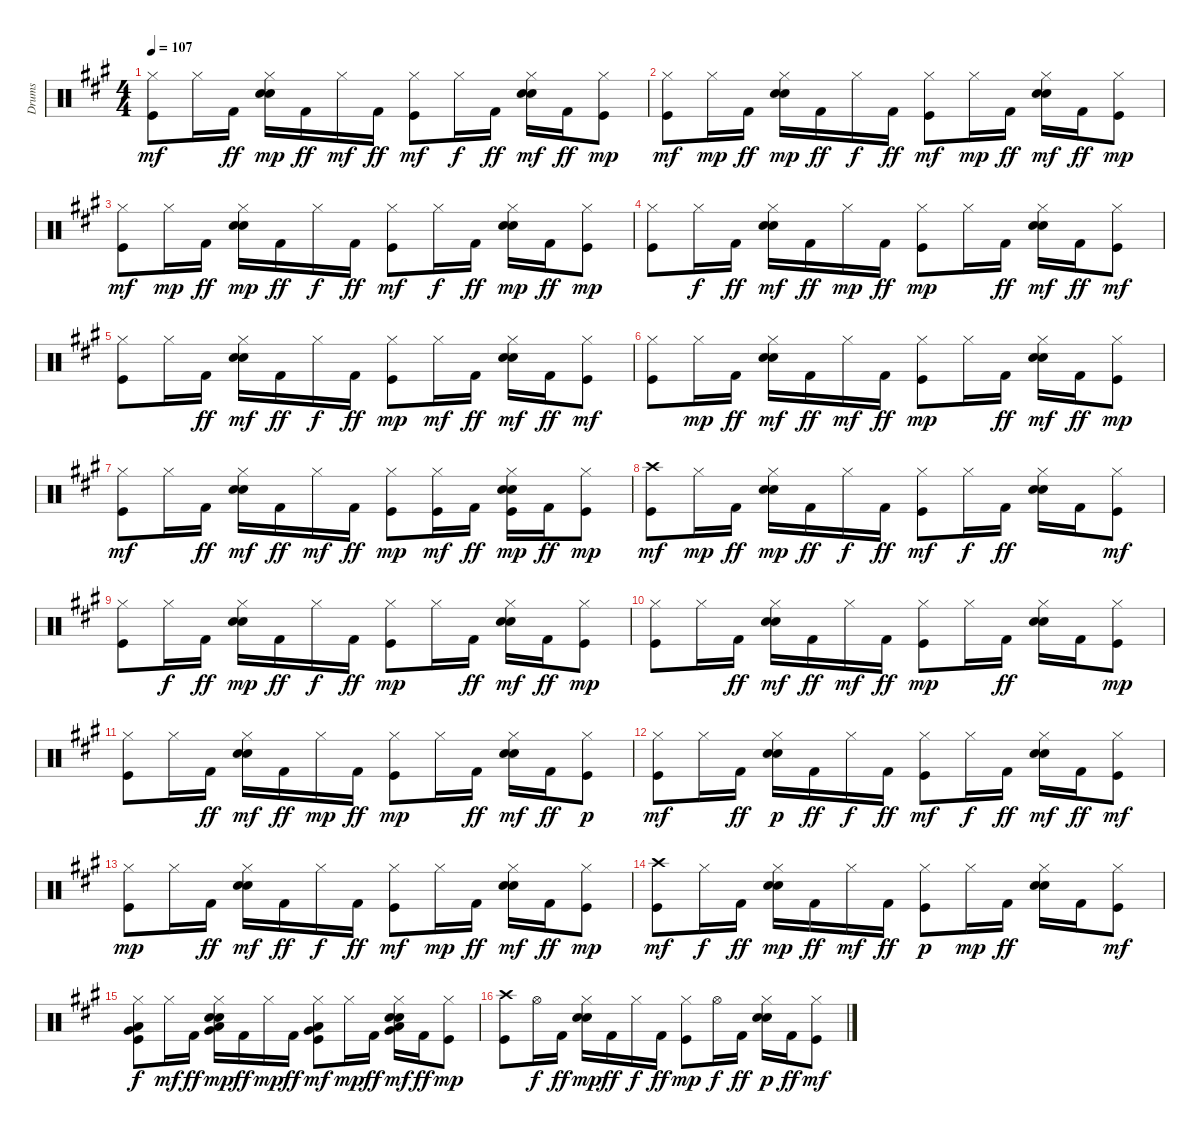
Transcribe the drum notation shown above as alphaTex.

\track ("Drums" "Drums") {instrument percussion}
\staff {score}
\articulation defaults
\ts (4 4)
\tempo 107
\clef neutral
\ks a
("Kick (hit)" "Hi-Hat (closed)").8{dy mf} "Hi-Hat (closed)".16 "Kick (hit) 2".16{dy ff} ("Snare (hit) 2" "Hand Clap (hit)" "Hi-Hat (closed)").16{dy mp} "Kick (hit) 2".16{dy ff} "Hi-Hat (closed)".16{dy mf} "Kick (hit) 2".16{dy ff} ("Kick (hit)" "Hi-Hat (closed)").8{dy mf} "Hi-Hat (closed)".16{dy f} "Kick (hit) 2".16{dy ff} ("Snare (hit) 2" "Hand Clap (hit)" "Hi-Hat (closed)").16{dy mf} "Kick (hit) 2".16{dy ff} ("Kick (hit)" "Hi-Hat (closed)").8{dy mp} |
("Kick (hit)" "Hi-Hat (closed)").8{dy mf} "Hi-Hat (closed)".16{dy mp} "Kick (hit) 2".16{dy ff} ("Snare (hit) 2" "Hand Clap (hit)" "Hi-Hat (closed)").16{dy mp} "Kick (hit) 2".16{dy ff} "Hi-Hat (closed)".16{dy f} "Kick (hit) 2".16{dy ff} ("Kick (hit)" "Hi-Hat (closed)").8{dy mf} "Hi-Hat (closed)".16{dy mp} "Kick (hit) 2".16{dy ff} ("Snare (hit) 2" "Hand Clap (hit)" "Hi-Hat (closed)").16{dy mf} "Kick (hit) 2".16{dy ff} ("Kick (hit)" "Hi-Hat (closed)").8{dy mp} |
("Kick (hit)" "Hi-Hat (closed)").8{dy mf} "Hi-Hat (closed)".16{dy mp} "Kick (hit) 2".16{dy ff} ("Snare (hit) 2" "Hand Clap (hit)" "Hi-Hat (closed)").16{dy mp} "Kick (hit) 2".16{dy ff} "Hi-Hat (closed)".16{dy f} "Kick (hit) 2".16{dy ff} ("Kick (hit)" "Hi-Hat (closed)").8{dy mf} "Hi-Hat (closed)".16{dy f} "Kick (hit) 2".16{dy ff} ("Snare (hit) 2" "Hand Clap (hit)" "Hi-Hat (closed)").16{dy mp} "Kick (hit) 2".16{dy ff} ("Kick (hit)" "Hi-Hat (closed)").8{dy mp} |
("Kick (hit)" "Hi-Hat (closed)").8 "Hi-Hat (closed)".16{dy f} "Kick (hit) 2".16{dy ff} ("Snare (hit) 2" "Hand Clap (hit)" "Hi-Hat (closed)").16{dy mf} "Kick (hit) 2".16{dy ff} "Hi-Hat (closed)".16{dy mp} "Kick (hit) 2".16{dy ff} ("Kick (hit)" "Hi-Hat (closed)").8{dy mp} "Hi-Hat (closed)".16 "Kick (hit) 2".16{dy ff} ("Snare (hit) 2" "Hand Clap (hit)" "Hi-Hat (closed)").16{dy mf} "Kick (hit) 2".16{dy ff} ("Kick (hit)" "Hi-Hat (closed)").8{dy mf} |
("Kick (hit)" "Hi-Hat (closed)").8 "Hi-Hat (closed)".16 "Kick (hit) 2".16{dy ff} ("Snare (hit) 2" "Hand Clap (hit)" "Hi-Hat (closed)").16{dy mf} "Kick (hit) 2".16{dy ff} "Hi-Hat (closed)".16{dy f} "Kick (hit) 2".16{dy ff} ("Kick (hit)" "Hi-Hat (closed)").8{dy mp} "Hi-Hat (closed)".16{dy mf} "Kick (hit) 2".16{dy ff} ("Snare (hit) 2" "Hand Clap (hit)" "Hi-Hat (closed)").16{dy mf} "Kick (hit) 2".16{dy ff} ("Kick (hit)" "Hi-Hat (closed)").8{dy mf} |
("Kick (hit)" "Hi-Hat (closed)").8 "Hi-Hat (closed)".16{dy mp} "Kick (hit) 2".16{dy ff} ("Snare (hit) 2" "Hand Clap (hit)" "Hi-Hat (closed)").16{dy mf} "Kick (hit) 2".16{dy ff} "Hi-Hat (closed)".16{dy mf} "Kick (hit) 2".16{dy ff} ("Kick (hit)" "Hi-Hat (closed)").8{dy mp} "Hi-Hat (closed)".16 "Kick (hit) 2".16{dy ff} ("Snare (hit) 2" "Hand Clap (hit)" "Hi-Hat (closed)").16{dy mf} "Kick (hit) 2".16{dy ff} ("Kick (hit)" "Hi-Hat (closed)").8{dy mp} |
("Kick (hit)" "Hi-Hat (closed)").8{dy mf} "Hi-Hat (closed)".16 "Kick (hit) 2".16{dy ff} ("Snare (hit) 2" "Hand Clap (hit)" "Hi-Hat (closed)").16{dy mf} "Kick (hit) 2".16{dy ff} "Hi-Hat (closed)".16{dy mf} "Kick (hit) 2".16{dy ff} ("Kick (hit)" "Hi-Hat (closed)").8{dy mp} ("Kick (hit)" "Hi-Hat (closed)").16{dy mf} "Kick (hit) 2".16{dy ff} ("Kick (hit)" "Snare (hit) 2" "Hand Clap (hit)" "Hi-Hat (closed)").16{dy mp} "Kick (hit) 2".16{dy ff} ("Kick (hit)" "Hi-Hat (closed)").8{dy mp} |
("Kick (hit)" "Crash high (hit)").8{dy mf} "Hi-Hat (closed)".16{dy mp} "Kick (hit) 2".16{dy ff} ("Snare (hit) 2" "Hand Clap (hit)" "Hi-Hat (closed)").16{dy mp} "Kick (hit) 2".16{dy ff} "Hi-Hat (closed)".16{dy f} "Kick (hit) 2".16{dy ff} ("Kick (hit)" "Hi-Hat (closed)").8{dy mf} "Hi-Hat (closed)".16{dy f} "Kick (hit) 2".16{dy ff} ("Snare (hit) 2" "Hand Clap (hit)" "Hi-Hat (closed)").16 "Kick (hit) 2".16 ("Kick (hit)" "Hi-Hat (closed)").8{dy mf} |
("Kick (hit)" "Hi-Hat (closed)").8 "Hi-Hat (closed)".16{dy f} "Kick (hit) 2".16{dy ff} ("Snare (hit) 2" "Hand Clap (hit)" "Hi-Hat (closed)").16{dy mp} "Kick (hit) 2".16{dy ff} "Hi-Hat (closed)".16{dy f} "Kick (hit) 2".16{dy ff} ("Kick (hit)" "Hi-Hat (closed)").8{dy mp} "Hi-Hat (closed)".16 "Kick (hit) 2".16{dy ff} ("Snare (hit) 2" "Hand Clap (hit)" "Hi-Hat (closed)").16{dy mf} "Kick (hit) 2".16{dy ff} ("Kick (hit)" "Hi-Hat (closed)").8{dy mp} |
("Kick (hit)" "Hi-Hat (closed)").8 "Hi-Hat (closed)".16 "Kick (hit) 2".16{dy ff} ("Snare (hit) 2" "Hand Clap (hit)" "Hi-Hat (closed)").16{dy mf} "Kick (hit) 2".16{dy ff} "Hi-Hat (closed)".16{dy mf} "Kick (hit) 2".16{dy ff} ("Kick (hit)" "Hi-Hat (closed)").8{dy mp} "Hi-Hat (closed)".16 "Kick (hit) 2".16{dy ff} ("Snare (hit) 2" "Hand Clap (hit)" "Hi-Hat (closed)").16 "Kick (hit) 2".16 ("Kick (hit)" "Hi-Hat (closed)").8{dy mp} |
("Kick (hit)" "Hi-Hat (closed)").8 "Hi-Hat (closed)".16 "Kick (hit) 2".16{dy ff} ("Snare (hit) 2" "Hand Clap (hit)" "Hi-Hat (closed)").16{dy mf} "Kick (hit) 2".16{dy ff} "Hi-Hat (closed)".16{dy mp} "Kick (hit) 2".16{dy ff} ("Kick (hit)" "Hi-Hat (closed)").8{dy mp} "Hi-Hat (closed)".16 "Kick (hit) 2".16{dy ff} ("Snare (hit) 2" "Hand Clap (hit)" "Hi-Hat (closed)").16{dy mf} "Kick (hit) 2".16{dy ff} ("Kick (hit)" "Hi-Hat (closed)").8{dy p} |
("Kick (hit)" "Hi-Hat (closed)").8{dy mf} "Hi-Hat (closed)".16 "Kick (hit) 2".16{dy ff} ("Snare (hit) 2" "Hand Clap (hit)" "Hi-Hat (closed)").16{dy p} "Kick (hit) 2".16{dy ff} "Hi-Hat (closed)".16{dy f} "Kick (hit) 2".16{dy ff} ("Kick (hit)" "Hi-Hat (closed)").8{dy mf} "Hi-Hat (closed)".16{dy f} "Kick (hit) 2".16{dy ff} ("Snare (hit) 2" "Hand Clap (hit)" "Hi-Hat (closed)").16{dy mf} "Kick (hit) 2".16{dy ff} ("Kick (hit)" "Hi-Hat (closed)").8{dy mf} |
("Kick (hit)" "Hi-Hat (closed)").8{dy mp} "Hi-Hat (closed)".16 "Kick (hit) 2".16{dy ff} ("Snare (hit) 2" "Hand Clap (hit)" "Hi-Hat (closed)").16{dy mf} "Kick (hit) 2".16{dy ff} "Hi-Hat (closed)".16{dy f} "Kick (hit) 2".16{dy ff} ("Kick (hit)" "Hi-Hat (closed)").8{dy mf} "Hi-Hat (closed)".16{dy mp} "Kick (hit) 2".16{dy ff} ("Snare (hit) 2" "Hand Clap (hit)" "Hi-Hat (closed)").16{dy mf} "Kick (hit) 2".16{dy ff} ("Kick (hit)" "Hi-Hat (closed)").8{dy mp} |
("Kick (hit)" "Crash high (hit)").8{dy mf} "Hi-Hat (closed)".16{dy f} "Kick (hit) 2".16{dy ff} ("Snare (hit) 2" "Hand Clap (hit)" "Hi-Hat (closed)").16{dy mp} "Kick (hit) 2".16{dy ff} "Hi-Hat (closed)".16{dy mf} "Kick (hit) 2".16{dy ff} ("Kick (hit)" "Hi-Hat (closed)").8{dy p} "Hi-Hat (closed)".16{dy mp} "Kick (hit) 2".16{dy ff} ("Snare (hit) 2" "Hand Clap (hit)" "Hi-Hat (closed)").16 "Kick (hit) 2".16 ("Kick (hit)" "Hi-Hat (closed)").8{dy mf} |
("Kick (hit)" "Low Floor Tom (hit)" "Hi-Hat (closed)" "Very Low Tom (hit)").8{dy f} "Hi-Hat (closed)".16{dy mf} "Kick (hit) 2".16{dy ff} ("Snare (hit) 2" "Hand Clap (hit)" "Low Floor Tom (hit)" "Hi-Hat (closed)" "Very Low Tom (hit)").16{dy mp} "Kick (hit) 2".16{dy ff} "Hi-Hat (closed)".16{dy mp} "Kick (hit) 2".16{dy ff} ("Kick (hit)" "Low Floor Tom (hit)" "Hi-Hat (closed)" "Very Low Tom (hit)").8{dy mf} "Hi-Hat (closed)".16{dy mp} "Kick (hit) 2".16{dy ff} ("Snare (hit) 2" "Hand Clap (hit)" "Low Floor Tom (hit)" "Hi-Hat (closed)" "Very Low Tom (hit)").16{dy mf} "Kick (hit) 2".16{dy ff} ("Kick (hit)" "Hi-Hat (closed)").8{dy mp} |
("Kick (hit)" "Crash high (hit)").8 "Hi-Hat (open)".16{dy f} "Kick (hit) 2".16{dy ff} ("Snare (hit) 2" "Hand Clap (hit)" "Hi-Hat (closed)").16{dy mp} "Kick (hit) 2".16{dy ff} "Hi-Hat (closed)".16{dy f} "Kick (hit) 2".16{dy ff} ("Kick (hit)" "Hi-Hat (closed)").8{dy mp} "Hi-Hat (open)".16{dy f} "Kick (hit) 2".16{dy ff} ("Snare (hit) 2" "Hand Clap (hit)" "Hi-Hat (closed)").16{dy p} "Kick (hit) 2".16{dy ff} ("Kick (hit)" "Hi-Hat (closed)").8{dy mf}
